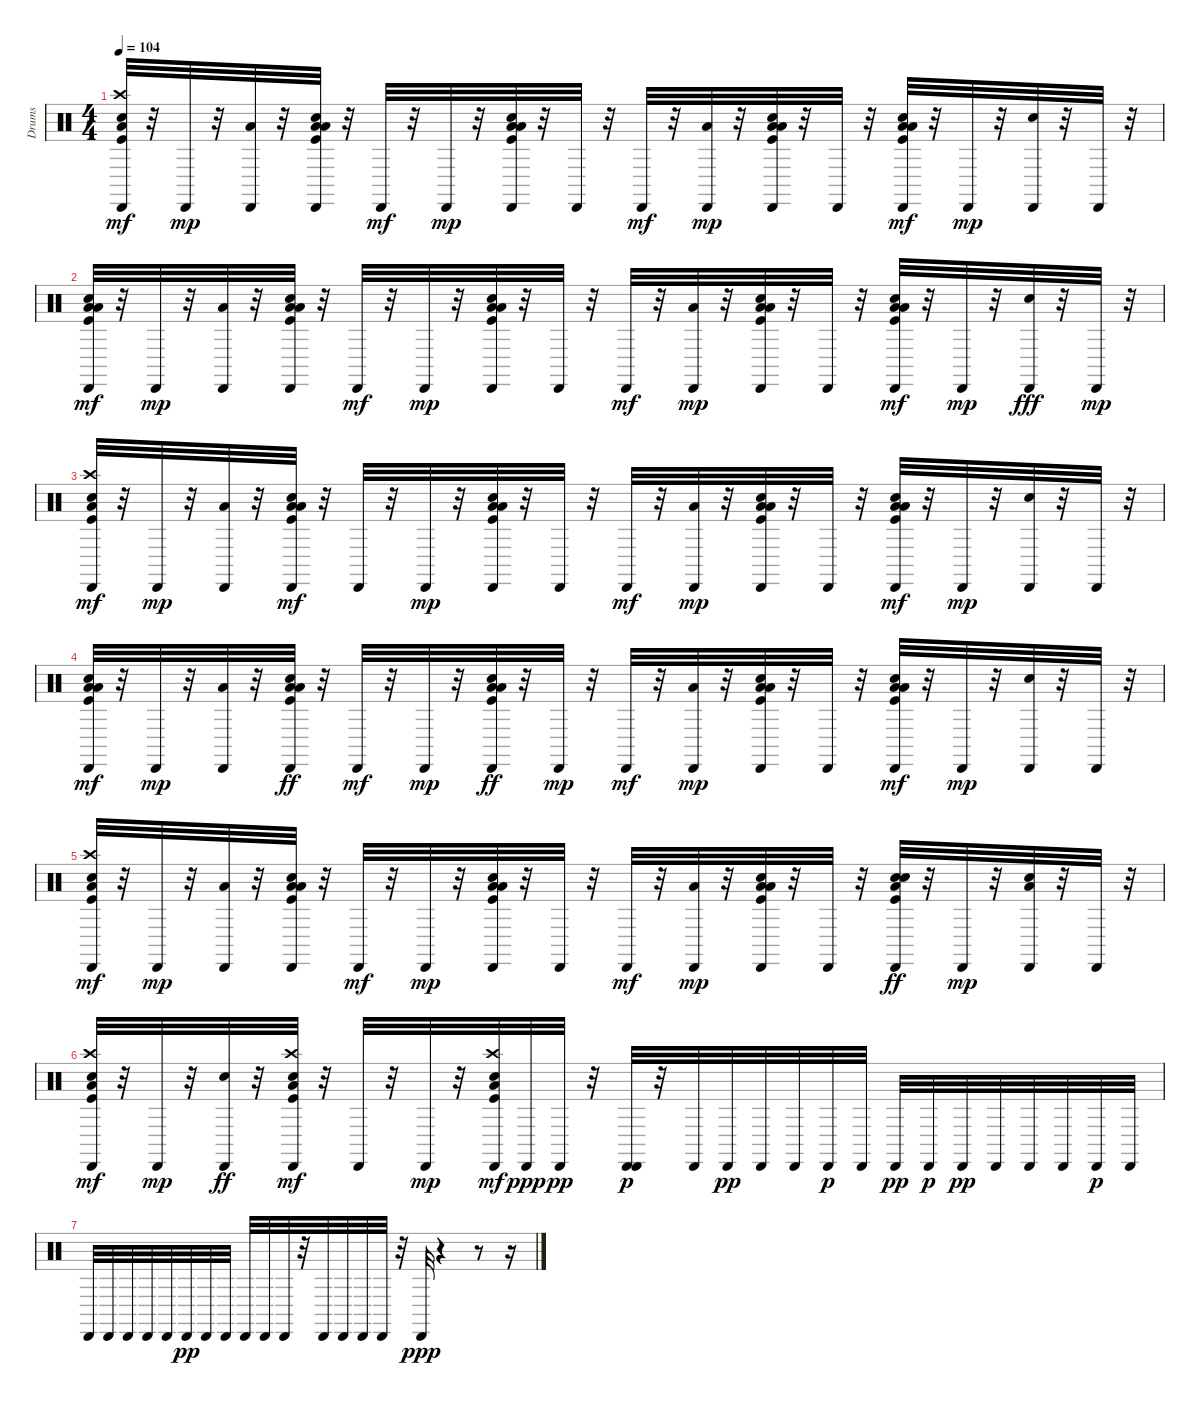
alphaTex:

\track ("Drums" "Drums") {instrument percussion}
\staff {score}
\articulation defaults
\ts (4 4)
\tempo 104
\clef neutral
\ks c
("Low Floor Tom (hit)" "Kick (hit)" "Hand Clap (hit)" "Cabasa (hit)" "Crash high (hit)").32{dy mf} r.32 "Cabasa (hit)".32{dy mp} r.32 ("Low Tom (hit)" "Cabasa (hit)").32 r.32 ("Low Tom (hit)" "Kick (hit)" "Cabasa (hit)" "Low Floor Tom (hit)" "Hand Clap (hit)").32 r.32 "Cabasa (hit)".32{dy mf} r.32 "Cabasa (hit)".32{dy mp} r.32 ("Low Tom (hit)" "Low Floor Tom (hit)" "Kick (hit)" "Hand Clap (hit)" "Cabasa (hit)").32 r.32 "Cabasa (hit)".32 r.32 "Cabasa (hit)".32{dy mf} r.32 ("Low Tom (hit)" "Cabasa (hit)").32{dy mp} r.32 ("Low Tom (hit)" "Hand Clap (hit)" "Low Floor Tom (hit)" "Kick (hit)" "Cabasa (hit)").32 r.32 "Cabasa (hit)".32 r.32 ("Low Tom (hit)" "Kick (hit)" "Hand Clap (hit)" "Low Floor Tom (hit)" "Cabasa (hit)").32{dy mf} r.32 "Cabasa (hit)".32{dy mp} r.32 ("Snare (hit) 2" "Cabasa (hit)").32 r.32 "Cabasa (hit)".32 r.32 |
("Low Floor Tom (hit)" "Hand Clap (hit)" "Low Tom (hit)" "Kick (hit)" "Cabasa (hit)").32{dy mf} r.32 "Cabasa (hit)".32{dy mp} r.32 ("Low Tom (hit)" "Cabasa (hit)").32 r.32 ("Low Tom (hit)" "Hand Clap (hit)" "Low Floor Tom (hit)" "Kick (hit)" "Cabasa (hit)").32 r.32 "Cabasa (hit)".32{dy mf} r.32 "Cabasa (hit)".32{dy mp} r.32 ("Low Tom (hit)" "Low Floor Tom (hit)" "Kick (hit)" "Hand Clap (hit)" "Cabasa (hit)").32 r.32 "Cabasa (hit)".32 r.32 "Cabasa (hit)".32{dy mf} r.32 ("Cabasa (hit)" "Low Tom (hit)").32{dy mp} r.32 ("Low Tom (hit)" "Low Floor Tom (hit)" "Kick (hit)" "Hand Clap (hit)" "Cabasa (hit)").32 r.32 "Cabasa (hit)".32 r.32 ("Kick (hit)" "Cabasa (hit)" "Low Tom (hit)" "Hand Clap (hit)" "Low Floor Tom (hit)").32{dy mf} r.32 "Cabasa (hit)".32{dy mp} r.32 ("Cabasa (hit)" "Snare (hit) 2").32{dy fff} r.32 "Cabasa (hit)".32{dy mp} r.32 |
("Crash high (hit)" "Low Floor Tom (hit)" "Cabasa (hit)" "Kick (hit)" "Hand Clap (hit)").32{dy mf} r.32 "Cabasa (hit)".32{dy mp} r.32 ("Cabasa (hit)" "Low Tom (hit)").32 r.32 ("Kick (hit)" "Cabasa (hit)" "Low Floor Tom (hit)" "Low Tom (hit)" "Hand Clap (hit)").32{dy mf} r.32 "Cabasa (hit)".32 r.32 "Cabasa (hit)".32{dy mp} r.32 ("Low Floor Tom (hit)" "Low Tom (hit)" "Kick (hit)" "Hand Clap (hit)" "Cabasa (hit)").32 r.32 "Cabasa (hit)".32 r.32 "Cabasa (hit)".32{dy mf} r.32 ("Cabasa (hit)" "Low Tom (hit)").32{dy mp} r.32 ("Low Floor Tom (hit)" "Low Tom (hit)" "Kick (hit)" "Hand Clap (hit)" "Cabasa (hit)").32 r.32 "Cabasa (hit)".32 r.32 ("Low Floor Tom (hit)" "Low Tom (hit)" "Kick (hit)" "Hand Clap (hit)" "Cabasa (hit)").32{dy mf} r.32 "Cabasa (hit)".32{dy mp} r.32 ("Snare (hit) 2" "Cabasa (hit)").32 r.32 "Cabasa (hit)".32 r.32 |
("Hand Clap (hit)" "Cabasa (hit)" "Low Tom (hit)" "Low Floor Tom (hit)" "Kick (hit)").32{dy mf} r.32 "Cabasa (hit)".32{dy mp} r.32 ("Low Tom (hit)" "Cabasa (hit)").32 r.32 ("Low Tom (hit)" "Kick (hit)" "Hand Clap (hit)" "Cabasa (hit)" "Low Floor Tom (hit)").32{dy ff} r.32 "Cabasa (hit)".32{dy mf} r.32 "Cabasa (hit)".32{dy mp} r.32 ("Cabasa (hit)" "Low Tom (hit)" "Kick (hit)" "Hand Clap (hit)" "Low Floor Tom (hit)").32{dy ff} r.32 "Cabasa (hit)".32{dy mp} r.32 "Cabasa (hit)".32{dy mf} r.32 ("Low Tom (hit)" "Cabasa (hit)").32{dy mp} r.32 ("Hand Clap (hit)" "Low Tom (hit)" "Low Floor Tom (hit)" "Kick (hit)" "Cabasa (hit)").32 r.32 "Cabasa (hit)".32 r.32 ("Low Floor Tom (hit)" "Low Tom (hit)" "Kick (hit)" "Hand Clap (hit)" "Cabasa (hit)").32{dy mf} r.32 "Cabasa (hit)".32{dy mp} r.32 ("Snare (hit) 2" "Cabasa (hit)").32 r.32 "Cabasa (hit)".32 r.32 |
("Crash high (hit)" "Hand Clap (hit)" "Low Floor Tom (hit)" "Kick (hit)" "Cabasa (hit)").32{dy mf} r.32 "Cabasa (hit)".32{dy mp} r.32 ("Low Tom (hit)" "Cabasa (hit)").32 r.32 ("Low Tom (hit)" "Kick (hit)" "Hand Clap (hit)" "Low Floor Tom (hit)" "Cabasa (hit)").32 r.32 "Cabasa (hit)".32{dy mf} r.32 "Cabasa (hit)".32{dy mp} r.32 ("Hand Clap (hit)" "Low Tom (hit)" "Low Floor Tom (hit)" "Kick (hit)" "Cabasa (hit)").32 r.32 "Cabasa (hit)".32 r.32 "Cabasa (hit)".32{dy mf} r.32 ("Low Tom (hit)" "Cabasa (hit)").32{dy mp} r.32 ("Low Tom (hit)" "Hand Clap (hit)" "Low Floor Tom (hit)" "Kick (hit)" "Cabasa (hit)").32 r.32 "Cabasa (hit)".32 r.32 ("Kick (hit)" "Hand Clap (hit)" "Snare (hit) 2" "Cabasa (hit)" "Low Floor Tom (hit)").32{dy ff} r.32 "Cabasa (hit)".32{dy mp} r.32 ("Low Floor Tom (hit)" "Snare (hit) 2" "Cabasa (hit)").32 r.32 "Cabasa (hit)".32 r.32 |
("Crash high (hit)" "Low Floor Tom (hit)" "Kick (hit)" "Hand Clap (hit)" "Cabasa (hit)").32{dy mf} r.32 "Cabasa (hit)".32{dy mp} r.32 ("Cabasa (hit)" "Snare (hit) 2").32{dy ff} r.32 ("Crash high (hit)" "Cabasa (hit)" "Low Floor Tom (hit)" "Kick (hit)" "Hand Clap (hit)").32{dy mf} r.32 "Cabasa (hit)".32 r.32 "Cabasa (hit)".32{dy mp} r.32 ("Crash high (hit)" "Low Floor Tom (hit)" "Cabasa (hit)" "Kick (hit)" "Hand Clap (hit)").32{dy mf} "Cabasa (hit)".32{dy ppp} "Cabasa (hit)".32{dy pp} r.32 ("Cabasa (hit)" "Cabasa (hit)").32{dy p} r.32 "Cabasa (hit)".32 "Cabasa (hit)".32{dy pp} "Cabasa (hit)".32 "Cabasa (hit)".32 "Cabasa (hit)".32{dy p} "Cabasa (hit)".32 "Cabasa (hit)".32{dy pp} "Cabasa (hit)".32{dy p} "Cabasa (hit)".32{dy pp} "Cabasa (hit)".32 "Cabasa (hit)".32 "Cabasa (hit)".32 "Cabasa (hit)".32{dy p} "Cabasa (hit)".32 |
"Cabasa (hit)".32 "Cabasa (hit)".32 "Cabasa (hit)".32 "Cabasa (hit)".32 "Cabasa (hit)".32 "Cabasa (hit)".32{dy pp} "Cabasa (hit)".32 "Cabasa (hit)".32 "Cabasa (hit)".32 "Cabasa (hit)".32 "Cabasa (hit)".32 r.32 "Cabasa (hit)".32 "Cabasa (hit)".32 "Cabasa (hit)".32 "Cabasa (hit)".32 r.32 "Cabasa (hit)".32{dy ppp} r.4 r.8 r.16
